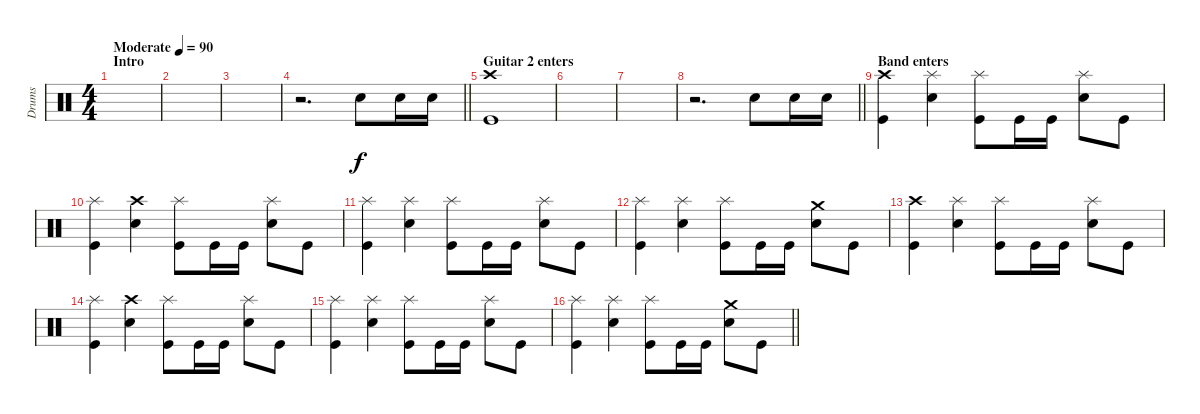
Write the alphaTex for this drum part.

\track ("Drums" "Drums") {instrument percussion}
\staff {score}
\articulation defaults
\ts (4 4)
\section ("" "Intro")
\tempo (90 "Moderate")
\clef neutral
\ks c
|
|
|
\barLineRight lightlight
r.2{d} "Snare (hit) 2".8 "Snare (hit) 2".16 "Snare (hit) 2".16 |
\section ("" "Guitar 2 enters")
("Crash high (hit)" "Kick (hit)").1 |
|
|
\barLineRight lightlight
r.2{d} "Snare (hit) 2".8 "Snare (hit) 2".16 "Snare (hit) 2".16 |
\section ("" "Band enters")
("Crash high (hit)" "Kick (hit)").4 ("Splash (hit)" "Snare (hit) 2").4 ("Splash (hit)" "Kick (hit)").8 "Kick (hit)".16 "Kick (hit)".16 ("Splash (hit)" "Snare (hit) 2").8 "Kick (hit)".8 |
("Splash (hit)" "Kick (hit)").4 ("Crash high (hit)" "Snare (hit) 2").4 ("Splash (hit)" "Kick (hit)").8 "Kick (hit)".16 "Kick (hit)".16 ("Splash (hit)" "Snare (hit) 2").8 "Kick (hit)".8 |
("Splash (hit)" "Kick (hit)").4 ("Splash (hit)" "Snare (hit) 2").4 ("Splash (hit)" "Kick (hit)").8 "Kick (hit)".16 "Kick (hit)".16 ("Splash (hit)" "Snare (hit) 2").8 "Kick (hit)".8 |
("Splash (hit)" "Kick (hit)").4 ("Splash (hit)" "Snare (hit) 2").4 ("Splash (hit)" "Kick (hit)").8 "Kick (hit)".16 "Kick (hit)".16 ("Crash medium (hit)" "Snare (hit) 2").8 "Kick (hit)".8 |
("Crash high (hit)" "Kick (hit)").4 ("Splash (hit)" "Snare (hit) 2").4 ("Splash (hit)" "Kick (hit)").8 "Kick (hit)".16 "Kick (hit)".16 ("Splash (hit)" "Snare (hit) 2").8 "Kick (hit)".8 |
("Splash (hit)" "Kick (hit)").4 ("Crash high (hit)" "Snare (hit) 2").4 ("Splash (hit)" "Kick (hit)").8 "Kick (hit)".16 "Kick (hit)".16 ("Splash (hit)" "Snare (hit) 2").8 "Kick (hit)".8 |
("Splash (hit)" "Kick (hit)").4 ("Splash (hit)" "Snare (hit) 2").4 ("Splash (hit)" "Kick (hit)").8 "Kick (hit)".16 "Kick (hit)".16 ("Splash (hit)" "Snare (hit) 2").8 "Kick (hit)".8 |
\barLineRight lightlight
("Splash (hit)" "Kick (hit)").4 ("Splash (hit)" "Snare (hit) 2").4 ("Splash (hit)" "Kick (hit)").8 "Kick (hit)".16 "Kick (hit)".16 ("Crash medium (hit)" "Snare (hit) 2").8 "Kick (hit)".8
